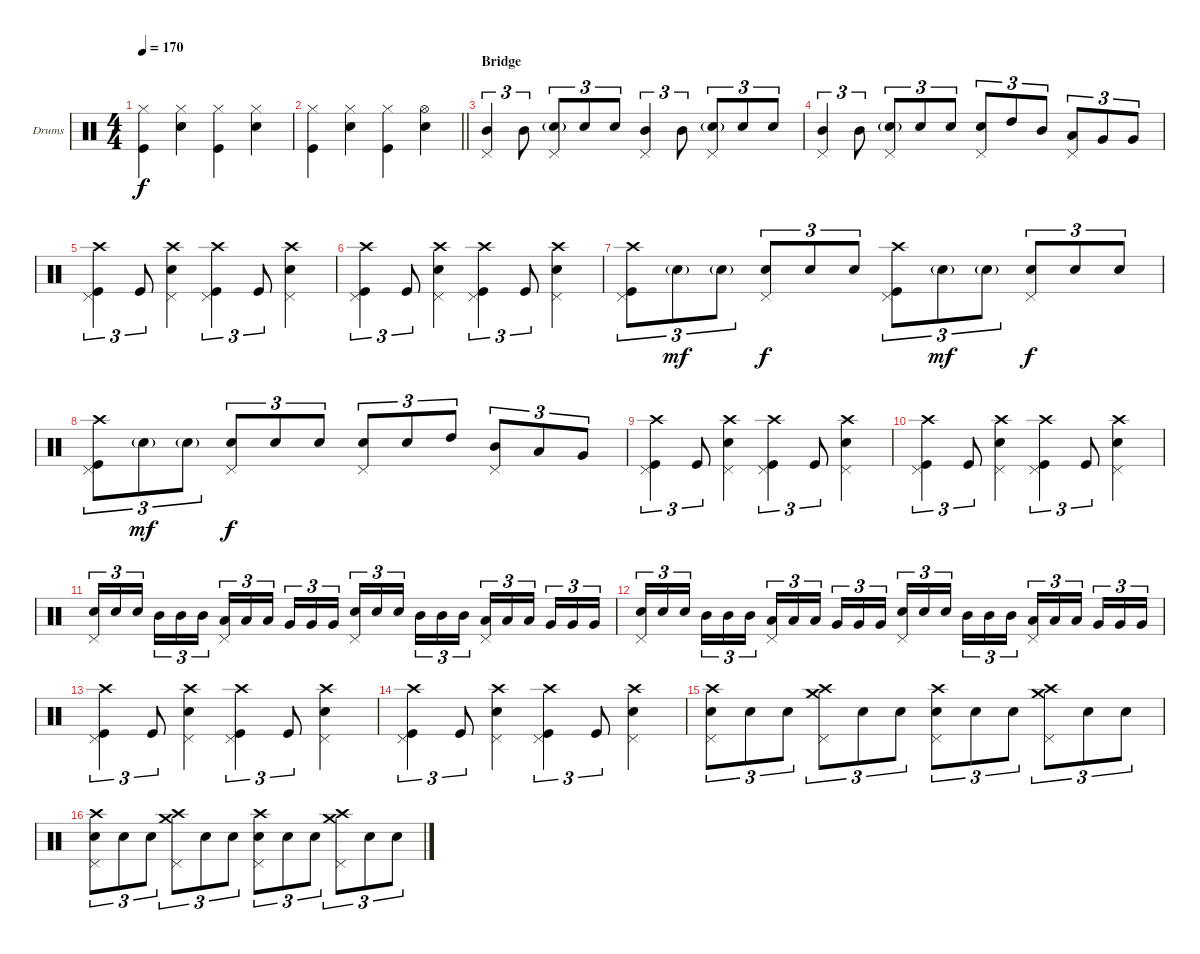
\bracketExtendMode groupsimilarinstruments
\firstSystemTrackNameOrientation horizontal
\otherSystemsTrackNameOrientation horizontal
\track ("Dave Grohl [Drumms]" "Drums") {instrument percussion}
\staff {score}
\articulation defaults
\ts (4 4)
\tempo 170
\clef neutral
\ks c
("Hi-Hat (closed)" "Kick (hit)").4{dy f} ("Hi-Hat (closed)" "Snare (hit) 2").4 ("Hi-Hat (closed)" "Kick (hit)").4 ("Hi-Hat (closed)" "Snare (hit) 2").4 |
\barLineRight lightlight
("Hi-Hat (closed)" "Kick (hit)").4 ("Hi-Hat (closed)" "Snare (hit) 2").4 ("Hi-Hat (closed)" "Kick (hit)").4 ("Hi-Hat (open)" "Snare (hit) 2").4 |
\section ("" "Bridge")
("Pedal Hi-Hat (hit)" "Mid Tom (hit)").4{tu (3 2)} "Mid Tom (hit)".8{tu (3 2)} ("Pedal Hi-Hat (hit)" "Snare (hit) 2"{g}).8{tu (3 2)} "Snare (hit) 2".8{tu (3 2)} "Snare (hit) 2".8{tu (3 2)} ("Pedal Hi-Hat (hit)" "Mid Tom (hit)").4{tu (3 2)} "Mid Tom (hit)".8{tu (3 2)} ("Pedal Hi-Hat (hit)" "Snare (hit) 2"{g}).8{tu (3 2)} "Snare (hit) 2".8{tu (3 2)} "Snare (hit) 2".8{tu (3 2)} |
("Pedal Hi-Hat (hit)" "Mid Tom (hit)").4{tu (3 2)} "Mid Tom (hit)".8{tu (3 2)} ("Pedal Hi-Hat (hit)" "Snare (hit) 2"{g}).8{tu (3 2)} "Snare (hit) 2".8{tu (3 2)} "Snare (hit) 2".8{tu (3 2)} ("Pedal Hi-Hat (hit)" "Snare (hit) 2").8{tu (3 2)} "High Tom (hit)".8{tu (3 2)} "Mid Tom (hit)".8{tu (3 2)} ("Pedal Hi-Hat (hit)" "Low Tom (hit)").8{tu (3 2)} "Very Low Tom (hit)".8{tu (3 2)} "Very Low Tom (hit)".8{tu (3 2)} |
("Crash high (hit)" "Pedal Hi-Hat (hit)" "Kick (hit)").4{tu (3 2)} "Kick (hit)".8{tu (3 2)} ("Crash high (hit)" "Pedal Hi-Hat (hit)" "Snare (hit) 2").4 ("Crash high (hit)" "Pedal Hi-Hat (hit)" "Kick (hit)").4{tu (3 2)} "Kick (hit)".8{tu (3 2)} ("Crash high (hit)" "Pedal Hi-Hat (hit)" "Snare (hit) 2").4 |
("Crash high (hit)" "Pedal Hi-Hat (hit)" "Kick (hit)").4{tu (3 2)} "Kick (hit)".8{tu (3 2)} ("Crash high (hit)" "Pedal Hi-Hat (hit)" "Snare (hit) 2").4 ("Crash high (hit)" "Pedal Hi-Hat (hit)" "Kick (hit)").4{tu (3 2)} "Kick (hit)".8{tu (3 2)} ("Crash high (hit)" "Pedal Hi-Hat (hit)" "Snare (hit) 2").4 |
("Crash high (hit)" "Pedal Hi-Hat (hit)" "Kick (hit)").8{tu (3 2)} "Snare (hit) 2"{g}.8{tu (3 2) dy mf} "Snare (hit) 2"{g}.8{tu (3 2)} ("Pedal Hi-Hat (hit)" "Snare (hit) 2").8{tu (3 2) dy f} "Snare (hit) 2".8{tu (3 2)} "Snare (hit) 2".8{tu (3 2)} ("Crash high (hit)" "Pedal Hi-Hat (hit)" "Kick (hit)").8{tu (3 2)} "Snare (hit) 2"{g}.8{tu (3 2) dy mf} "Snare (hit) 2"{g}.8{tu (3 2)} ("Pedal Hi-Hat (hit)" "Snare (hit) 2").8{tu (3 2) dy f} "Snare (hit) 2".8{tu (3 2)} "Snare (hit) 2".8{tu (3 2)} |
("Crash high (hit)" "Pedal Hi-Hat (hit)" "Kick (hit)").8{tu (3 2)} "Snare (hit) 2"{g}.8{tu (3 2) dy mf} "Snare (hit) 2"{g}.8{tu (3 2)} ("Pedal Hi-Hat (hit)" "Snare (hit) 2").8{tu (3 2) dy f} "Snare (hit) 2".8{tu (3 2)} "Snare (hit) 2".8{tu (3 2)} ("Pedal Hi-Hat (hit)" "Snare (hit) 2").8{tu (3 2)} "Snare (hit) 2".8{tu (3 2)} "High Tom (hit)".8{tu (3 2)} ("Pedal Hi-Hat (hit)" "Mid Tom (hit)").8{tu (3 2)} "Low Tom (hit)".8{tu (3 2)} "Very Low Tom (hit)".8{tu (3 2)} |
("Crash high (hit)" "Pedal Hi-Hat (hit)" "Kick (hit)").4{tu (3 2)} "Kick (hit)".8{tu (3 2)} ("Crash high (hit)" "Pedal Hi-Hat (hit)" "Snare (hit) 2").4 ("Crash high (hit)" "Pedal Hi-Hat (hit)" "Kick (hit)").4{tu (3 2)} "Kick (hit)".8{tu (3 2)} ("Crash high (hit)" "Pedal Hi-Hat (hit)" "Snare (hit) 2").4 |
("Crash high (hit)" "Pedal Hi-Hat (hit)" "Kick (hit)").4{tu (3 2)} "Kick (hit)".8{tu (3 2)} ("Crash high (hit)" "Pedal Hi-Hat (hit)" "Snare (hit) 2").4 ("Crash high (hit)" "Pedal Hi-Hat (hit)" "Kick (hit)").4{tu (3 2)} "Kick (hit)".8{tu (3 2)} ("Crash high (hit)" "Pedal Hi-Hat (hit)" "Snare (hit) 2").4 |
("Pedal Hi-Hat (hit)" "Snare (hit) 2").16{tu (3 2)} "Snare (hit) 2".16{tu (3 2)} "Snare (hit) 2".16{tu (3 2)} "Mid Tom (hit)".16{tu (3 2)} "Mid Tom (hit)".16{tu (3 2)} "Mid Tom (hit)".16{tu (3 2)} ("Pedal Hi-Hat (hit)" "Low Tom (hit)").16{tu (3 2)} "Low Tom (hit)".16{tu (3 2)} "Low Tom (hit)".16{tu (3 2)} "Very Low Tom (hit)".16{tu (3 2)} "Very Low Tom (hit)".16{tu (3 2)} "Very Low Tom (hit)".16{tu (3 2)} ("Pedal Hi-Hat (hit)" "Snare (hit) 2").16{tu (3 2)} "Snare (hit) 2".16{tu (3 2)} "Snare (hit) 2".16{tu (3 2)} "Mid Tom (hit)".16{tu (3 2)} "Mid Tom (hit)".16{tu (3 2)} "Mid Tom (hit)".16{tu (3 2)} ("Pedal Hi-Hat (hit)" "Low Tom (hit)").16{tu (3 2)} "Low Tom (hit)".16{tu (3 2)} "Low Tom (hit)".16{tu (3 2)} "Very Low Tom (hit)".16{tu (3 2)} "Very Low Tom (hit)".16{tu (3 2)} "Very Low Tom (hit)".16{tu (3 2)} |
("Pedal Hi-Hat (hit)" "Snare (hit) 2").16{tu (3 2)} "Snare (hit) 2".16{tu (3 2)} "Snare (hit) 2".16{tu (3 2)} "Mid Tom (hit)".16{tu (3 2)} "Mid Tom (hit)".16{tu (3 2)} "Mid Tom (hit)".16{tu (3 2)} ("Pedal Hi-Hat (hit)" "Low Tom (hit)").16{tu (3 2)} "Low Tom (hit)".16{tu (3 2)} "Low Tom (hit)".16{tu (3 2)} "Very Low Tom (hit)".16{tu (3 2)} "Very Low Tom (hit)".16{tu (3 2)} "Very Low Tom (hit)".16{tu (3 2)} ("Pedal Hi-Hat (hit)" "Snare (hit) 2").16{tu (3 2)} "Snare (hit) 2".16{tu (3 2)} "Snare (hit) 2".16{tu (3 2)} "Mid Tom (hit)".16{tu (3 2)} "Mid Tom (hit)".16{tu (3 2)} "Mid Tom (hit)".16{tu (3 2)} ("Pedal Hi-Hat (hit)" "Low Tom (hit)").16{tu (3 2)} "Low Tom (hit)".16{tu (3 2)} "Low Tom (hit)".16{tu (3 2)} "Very Low Tom (hit)".16{tu (3 2)} "Very Low Tom (hit)".16{tu (3 2)} "Very Low Tom (hit)".16{tu (3 2)} |
("Crash high (hit)" "Pedal Hi-Hat (hit)" "Kick (hit)").4{tu (3 2)} "Kick (hit)".8{tu (3 2)} ("Crash high (hit)" "Pedal Hi-Hat (hit)" "Snare (hit) 2").4 ("Crash high (hit)" "Pedal Hi-Hat (hit)" "Kick (hit)").4{tu (3 2)} "Kick (hit)".8{tu (3 2)} ("Crash high (hit)" "Pedal Hi-Hat (hit)" "Snare (hit) 2").4 |
("Crash high (hit)" "Pedal Hi-Hat (hit)" "Kick (hit)").4{tu (3 2)} "Kick (hit)".8{tu (3 2)} ("Crash high (hit)" "Pedal Hi-Hat (hit)" "Snare (hit) 2").4 ("Crash high (hit)" "Pedal Hi-Hat (hit)" "Kick (hit)").4{tu (3 2)} "Kick (hit)".8{tu (3 2)} ("Crash high (hit)" "Pedal Hi-Hat (hit)" "Snare (hit) 2").4 |
("Crash high (hit)" "Pedal Hi-Hat (hit)" "Snare (hit) 2").8{tu (3 2)} "Snare (hit) 2".8{tu (3 2)} "Snare (hit) 2".8{tu (3 2)} ("Crash high (hit)" "Crash medium (hit)" "Pedal Hi-Hat (hit)").8{tu (3 2)} "Snare (hit) 2".8{tu (3 2)} "Snare (hit) 2".8{tu (3 2)} ("Crash high (hit)" "Pedal Hi-Hat (hit)" "Snare (hit) 2").8{tu (3 2)} "Snare (hit) 2".8{tu (3 2)} "Snare (hit) 2".8{tu (3 2)} ("Crash high (hit)" "Crash medium (hit)" "Pedal Hi-Hat (hit)").8{tu (3 2)} "Snare (hit) 2".8{tu (3 2)} "Snare (hit) 2".8{tu (3 2)} |
("Crash high (hit)" "Pedal Hi-Hat (hit)" "Snare (hit) 2").8{tu (3 2)} "Snare (hit) 2".8{tu (3 2)} "Snare (hit) 2".8{tu (3 2)} ("Crash high (hit)" "Crash medium (hit)" "Pedal Hi-Hat (hit)").8{tu (3 2)} "Snare (hit) 2".8{tu (3 2)} "Snare (hit) 2".8{tu (3 2)} ("Crash high (hit)" "Pedal Hi-Hat (hit)" "Snare (hit) 2").8{tu (3 2)} "Snare (hit) 2".8{tu (3 2)} "Snare (hit) 2".8{tu (3 2)} ("Crash high (hit)" "Crash medium (hit)" "Pedal Hi-Hat (hit)").8{tu (3 2)} "Snare (hit) 2".8{tu (3 2)} "Snare (hit) 2".8{tu (3 2)}
